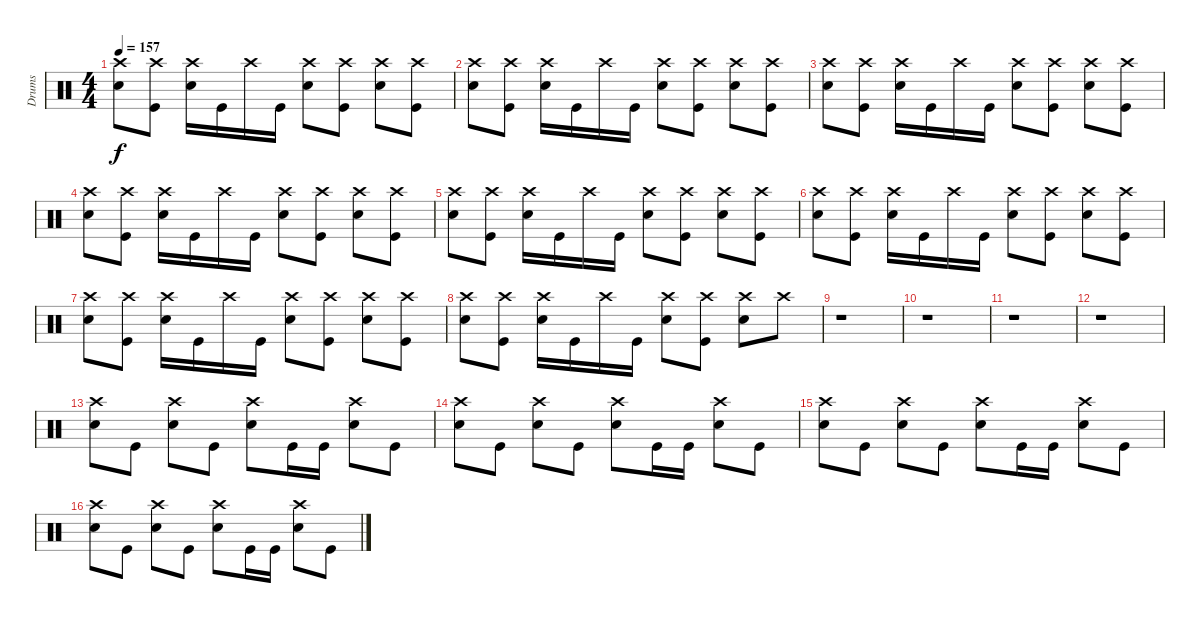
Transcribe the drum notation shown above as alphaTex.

\track ("Drums" "Drums") {instrument percussion}
\staff {score}
\articulation defaults
\ts (4 4)
\tempo 157
\clef neutral
\ks c
("Crash high (hit)" "Snare (hit) 2").8{dy f} ("Crash high (hit)" "Kick (hit)").8 ("Crash high (hit)" "Snare (hit) 2").16 "Kick (hit)".16 "Crash high (hit)".16 "Kick (hit)".16 ("Crash high (hit)" "Snare (hit) 2").8 ("Crash high (hit)" "Kick (hit)").8 ("Crash high (hit)" "Snare (hit) 2").8 ("Crash high (hit)" "Kick (hit)").8 |
("Crash high (hit)" "Snare (hit) 2").8 ("Crash high (hit)" "Kick (hit)").8 ("Crash high (hit)" "Snare (hit) 2").16 "Kick (hit)".16 "Crash high (hit)".16 "Kick (hit)".16 ("Crash high (hit)" "Snare (hit) 2").8 ("Crash high (hit)" "Kick (hit)").8 ("Crash high (hit)" "Snare (hit) 2").8 ("Crash high (hit)" "Kick (hit)").8 |
("Crash high (hit)" "Snare (hit) 2").8 ("Crash high (hit)" "Kick (hit)").8 ("Crash high (hit)" "Snare (hit) 2").16 "Kick (hit)".16 "Crash high (hit)".16 "Kick (hit)".16 ("Crash high (hit)" "Snare (hit) 2").8 ("Crash high (hit)" "Kick (hit)").8 ("Crash high (hit)" "Snare (hit) 2").8 ("Crash high (hit)" "Kick (hit)").8 |
("Crash high (hit)" "Snare (hit) 2").8 ("Crash high (hit)" "Kick (hit)").8 ("Crash high (hit)" "Snare (hit) 2").16 "Kick (hit)".16 "Crash high (hit)".16 "Kick (hit)".16 ("Crash high (hit)" "Snare (hit) 2").8 ("Crash high (hit)" "Kick (hit)").8 ("Crash high (hit)" "Snare (hit) 2").8 ("Crash high (hit)" "Kick (hit)").8 |
("Crash high (hit)" "Snare (hit) 2").8 ("Crash high (hit)" "Kick (hit)").8 ("Crash high (hit)" "Snare (hit) 2").16 "Kick (hit)".16 "Crash high (hit)".16 "Kick (hit)".16 ("Crash high (hit)" "Snare (hit) 2").8 ("Crash high (hit)" "Kick (hit)").8 ("Crash high (hit)" "Snare (hit) 2").8 ("Crash high (hit)" "Kick (hit)").8 |
("Crash high (hit)" "Snare (hit) 2").8 ("Crash high (hit)" "Kick (hit)").8 ("Crash high (hit)" "Snare (hit) 2").16 "Kick (hit)".16 "Crash high (hit)".16 "Kick (hit)".16 ("Crash high (hit)" "Snare (hit) 2").8 ("Crash high (hit)" "Kick (hit)").8 ("Crash high (hit)" "Snare (hit) 2").8 ("Crash high (hit)" "Kick (hit)").8 |
("Crash high (hit)" "Snare (hit) 2").8 ("Crash high (hit)" "Kick (hit)").8 ("Crash high (hit)" "Snare (hit) 2").16 "Kick (hit)".16 "Crash high (hit)".16 "Kick (hit)".16 ("Crash high (hit)" "Snare (hit) 2").8 ("Crash high (hit)" "Kick (hit)").8 ("Crash high (hit)" "Snare (hit) 2").8 ("Crash high (hit)" "Kick (hit)").8 |
("Crash high (hit)" "Snare (hit) 2").8 ("Crash high (hit)" "Kick (hit)").8 ("Crash high (hit)" "Snare (hit) 2").16 "Kick (hit)".16 "Crash high (hit)".16 "Kick (hit)".16 ("Crash high (hit)" "Snare (hit) 2").8 ("Crash high (hit)" "Kick (hit)").8 ("Crash high (hit)" "Snare (hit) 2").8 "Crash high (hit)".8 |
r.1 |
r.1 |
r.1 |
r.1 |
("Crash high (hit)" "Snare (hit) 2").8 "Kick (hit)".8 ("Crash high (hit)" "Snare (hit) 2").8 "Kick (hit)".8 ("Crash high (hit)" "Snare (hit) 2").8 "Kick (hit)".16 "Kick (hit)".16 ("Crash high (hit)" "Snare (hit) 2").8 "Kick (hit)".8 |
("Crash high (hit)" "Snare (hit) 2").8 "Kick (hit)".8 ("Crash high (hit)" "Snare (hit) 2").8 "Kick (hit)".8 ("Crash high (hit)" "Snare (hit) 2").8 "Kick (hit)".16 "Kick (hit)".16 ("Crash high (hit)" "Snare (hit) 2").8 "Kick (hit)".8 |
("Crash high (hit)" "Snare (hit) 2").8 "Kick (hit)".8 ("Crash high (hit)" "Snare (hit) 2").8 "Kick (hit)".8 ("Crash high (hit)" "Snare (hit) 2").8 "Kick (hit)".16 "Kick (hit)".16 ("Crash high (hit)" "Snare (hit) 2").8 "Kick (hit)".8 |
("Crash high (hit)" "Snare (hit) 2").8 "Kick (hit)".8 ("Crash high (hit)" "Snare (hit) 2").8 "Kick (hit)".8 ("Crash high (hit)" "Snare (hit) 2").8 "Kick (hit)".16 "Kick (hit)".16 ("Crash high (hit)" "Snare (hit) 2").8 "Kick (hit)".8
